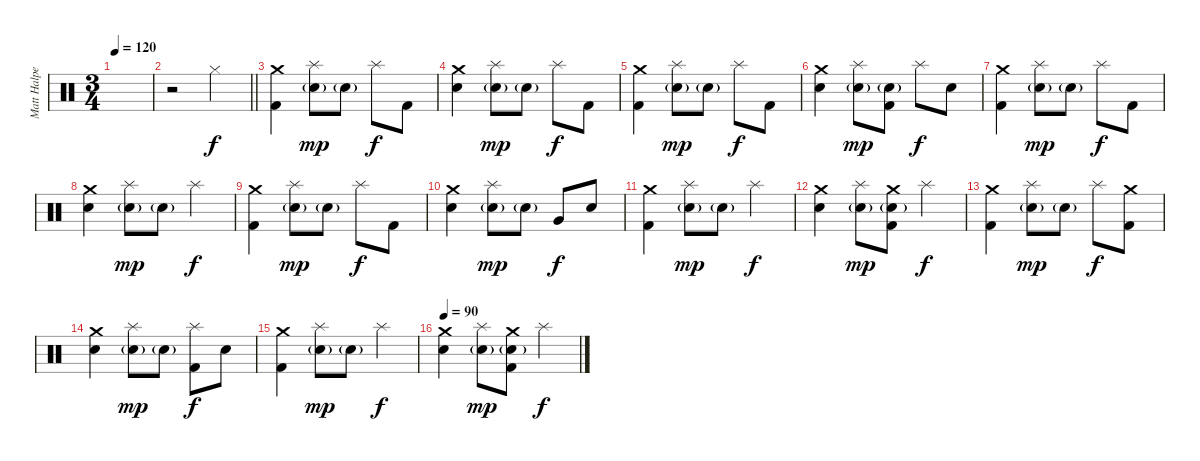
\track ("Matt Halpern - Drums" "Matt Halpe") {instrument percussion}
\staff {score}
\articulation defaults
\ts (3 4)
\tempo 120
\clef neutral
\ks c
|
\barLineRight lightlight
r.2 "Hi-Hat (closed)".4 |
\section ("" "")
("Crash medium (hit)" "Kick (hit) 2").4 ("Splash (hit)" "Snare (hit) 2"{g}).8{dy mp} "Snare (hit) 2"{g}.8 "Splash (hit)".8{dy f} "Kick (hit) 2".8 |
("Crash medium (hit)" "Snare (hit) 2").4 ("Splash (hit)" "Snare (hit) 2"{g}).8{dy mp} "Snare (hit) 2"{g}.8 "Splash (hit)".8{dy f} "Kick (hit) 2".8 |
("Crash medium (hit)" "Kick (hit) 2").4 ("Splash (hit)" "Snare (hit) 2"{g}).8{dy mp} "Snare (hit) 2"{g}.8 "Splash (hit)".8{dy f} "Kick (hit) 2".8 |
("Crash medium (hit)" "Snare (hit) 2").4 ("Splash (hit)" "Snare (hit) 2"{g}).8{dy mp} ("Snare (hit) 2"{g} "Kick (hit) 2").8 "Splash (hit)".8{dy f} "Snare (hit) 2".8 |
("Crash medium (hit)" "Kick (hit) 2").4 ("Splash (hit)" "Snare (hit) 2"{g}).8{dy mp} "Snare (hit) 2"{g}.8 "Splash (hit)".8{dy f} "Kick (hit) 2".8 |
("Crash medium (hit)" "Snare (hit) 2").4 ("Splash (hit)" "Snare (hit) 2"{g}).8{dy mp} "Snare (hit) 2"{g}.8 "Splash (hit)".4{dy f} |
("Crash medium (hit)" "Kick (hit) 2").4 ("Splash (hit)" "Snare (hit) 2"{g}).8{dy mp} "Snare (hit) 2"{g}.8 "Splash (hit)".8{dy f} "Kick (hit) 2".8 |
("Crash medium (hit)" "Snare (hit) 2").4 ("Splash (hit)" "Snare (hit) 2"{g}).8{dy mp} "Snare (hit) 2"{g}.8 "Very Low Tom (hit)".8{dy f} "Snare (hit) 2".8 |
("Crash medium (hit)" "Kick (hit) 2").4 ("Splash (hit)" "Snare (hit) 2"{g}).8{dy mp} "Snare (hit) 2"{g}.8 "Splash (hit)".4{dy f} |
("Crash medium (hit)" "Snare (hit) 2").4 ("Splash (hit)" "Snare (hit) 2"{g}).8{dy mp} ("Crash medium (hit)" "Snare (hit) 2"{g} "Kick (hit) 2").8 "Splash (hit)".4{dy f} |
("Crash medium (hit)" "Kick (hit) 2").4 ("Splash (hit)" "Snare (hit) 2"{g}).8{dy mp} "Snare (hit) 2"{g}.8 "Splash (hit)".8{dy f} ("Crash medium (hit)" "Kick (hit) 2").8 |
("Crash medium (hit)" "Snare (hit) 2").4 ("Splash (hit)" "Snare (hit) 2"{g}).8{dy mp} "Snare (hit) 2"{g}.8 ("Splash (hit)" "Kick (hit) 2").8{dy f} "Snare (hit) 2".8 |
("Crash medium (hit)" "Kick (hit) 2").4 ("Splash (hit)" "Snare (hit) 2"{g}).8{dy mp} "Snare (hit) 2"{g}.8 "Splash (hit)".4{dy f} |
\tempo 90
("Crash medium (hit)" "Snare (hit) 2").4 ("Splash (hit)" "Snare (hit) 2"{g}).8{dy mp} ("Crash medium (hit)" "Snare (hit) 2"{g} "Kick (hit) 2").8 "Splash (hit)".4{dy f}
